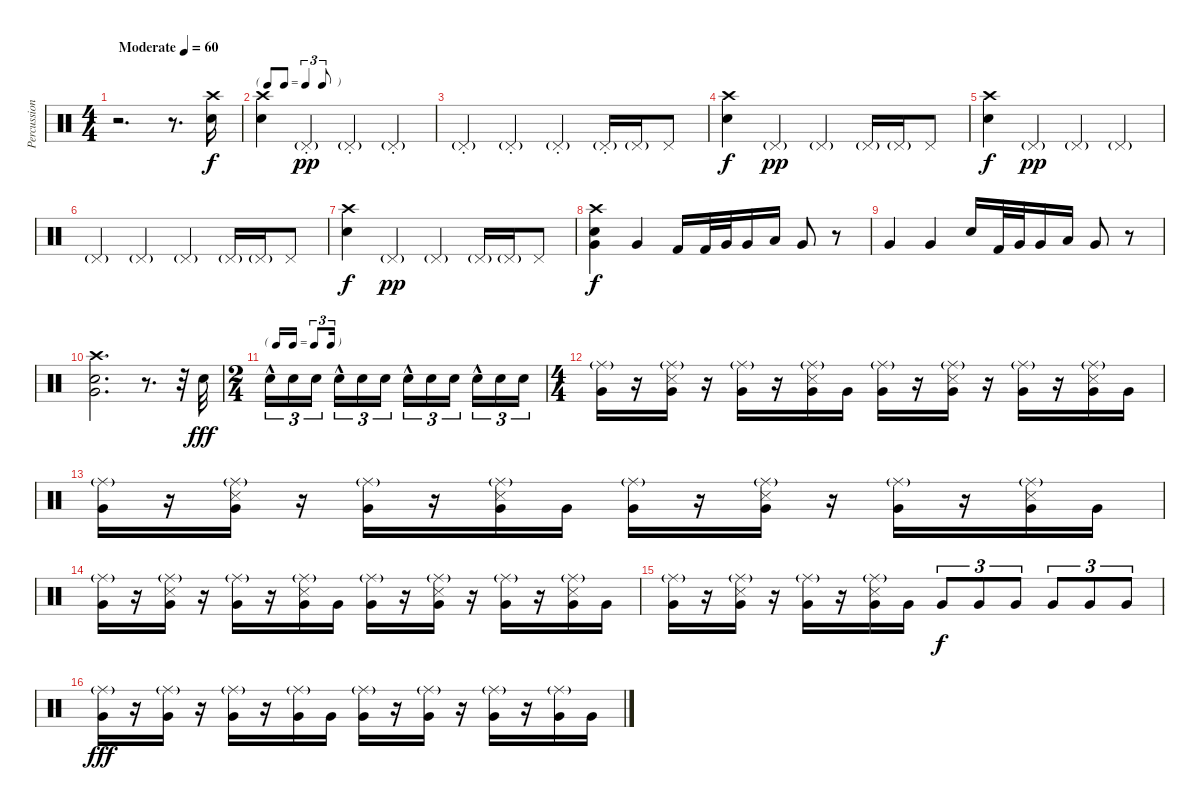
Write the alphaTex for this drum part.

\track ("Percussion" "Percussion") {instrument percussion}
\staff {score}
\articulation defaults
\ts (4 4)
\tempo (60 "Moderate")
\clef neutral
\ks c
r.2{d dy f} r.8{d} ("Crash high (hit)" "Snare (hit) 2").16 |
\tf triplet8th
("Crash high (hit)" "Snare (hit) 2").4 "Pedal Hi-Hat (hit)"{g st}.4{dy pp} "Pedal Hi-Hat (hit)"{g st}.4 "Pedal Hi-Hat (hit)"{g st}.4 |
"Pedal Hi-Hat (hit)"{g st}.4 "Pedal Hi-Hat (hit)"{g st}.4 "Pedal Hi-Hat (hit)"{g st}.4 "Pedal Hi-Hat (hit)"{g st}.16 "Pedal Hi-Hat (hit)"{g}.16 "Pedal Hi-Hat (hit)".8 |
("Crash high (hit)" "Snare (hit) 2").4{dy f} "Pedal Hi-Hat (hit)"{g}.4{dy pp} "Pedal Hi-Hat (hit)"{g}.4 "Pedal Hi-Hat (hit)"{g}.16 "Pedal Hi-Hat (hit)"{g}.16 "Pedal Hi-Hat (hit)".8 |
("Crash high (hit)" "Snare (hit) 2").4{dy f} "Pedal Hi-Hat (hit)"{g}.4{dy pp} "Pedal Hi-Hat (hit)"{g}.4 "Pedal Hi-Hat (hit)"{g}.4 |
"Pedal Hi-Hat (hit)"{g}.4 "Pedal Hi-Hat (hit)"{g}.4 "Pedal Hi-Hat (hit)"{g}.4 "Pedal Hi-Hat (hit)"{g}.16 "Pedal Hi-Hat (hit)"{g}.16 "Pedal Hi-Hat (hit)".8 |
("Crash high (hit)" "Snare (hit) 2").4{dy f} "Pedal Hi-Hat (hit)"{g}.4{dy pp} "Pedal Hi-Hat (hit)"{g}.4 "Pedal Hi-Hat (hit)"{g}.16 "Pedal Hi-Hat (hit)"{g}.16 "Pedal Hi-Hat (hit)".8 |
("Crash high (hit)" "Snare (hit) 2" "Very Low Tom (hit)").4{dy f} "Very Low Tom (hit)".4 "Kick (hit) 2".16 "Kick (hit) 2".32 "Very Low Tom (hit)".32 "Very Low Tom (hit)".16 "Low Tom (hit)".16 "Very Low Tom (hit)".8 r.8 |
"Very Low Tom (hit)".4 "Very Low Tom (hit)".4 "Snare (hit) 2".16 "Kick (hit) 2".32 "Very Low Tom (hit)".32 "Very Low Tom (hit)".16 "Low Tom (hit)".16 "Very Low Tom (hit)".8 r.8 |
("Crash high (hit)" "Snare (hit) 2" "Very Low Tom (hit)").2{d} r.8{d} r.32 "Hand Clap (hit)".32{dy fff} |
\ts (2 4)
\tf triplet16th "Hand Clap (hit)"{hac}.16{tu (3 2)} "Hand Clap (hit)".16{tu (3 2)} "Hand Clap (hit)".16{tu (3 2) beam splitsecondary} "Hand Clap (hit)"{hac}.16{tu (3 2)} "Hand Clap (hit)".16{tu (3 2)} "Hand Clap (hit)".16{tu (3 2)} "Hand Clap (hit)"{hac}.16{tu (3 2)} "Hand Clap (hit)".16{tu (3 2)} "Hand Clap (hit)".16{tu (3 2) beam splitsecondary} "Hand Clap (hit)"{hac}.16{tu (3 2)} "Hand Clap (hit)".16{tu (3 2)} "Hand Clap (hit)".16{tu (3 2)}
|
\ts (4 4)
("Ride (middle)"{g} "Very Low Tom (hit)").16 r.16 ("Ride (middle)"{g} "Metronome (hit)" "Very Low Tom (hit)").16 r.16 ("Ride (middle)"{g} "Very Low Tom (hit)").16 r.16 ("Ride (middle)"{g} "Metronome (hit)" "Very Low Tom (hit)").16 "Very Low Tom (hit)".16 ("Ride (middle)"{g} "Very Low Tom (hit)").16 r.16 ("Ride (middle)"{g} "Metronome (hit)" "Very Low Tom (hit)").16 r.16 ("Ride (middle)"{g} "Very Low Tom (hit)").16 r.16 ("Ride (middle)"{g} "Metronome (hit)" "Very Low Tom (hit)").16 "Very Low Tom (hit)".16 |
("Ride (middle)"{g} "Very Low Tom (hit)").16 r.16 ("Ride (middle)"{g} "Metronome (hit)" "Very Low Tom (hit)").16 r.16 ("Ride (middle)"{g} "Very Low Tom (hit)").16 r.16 ("Ride (middle)"{g} "Metronome (hit)" "Very Low Tom (hit)").16 "Very Low Tom (hit)".16 ("Ride (middle)"{g} "Very Low Tom (hit)").16 r.16 ("Ride (middle)"{g} "Metronome (hit)" "Very Low Tom (hit)").16 r.16 ("Ride (middle)"{g} "Very Low Tom (hit)").16 r.16 ("Ride (middle)"{g} "Metronome (hit)" "Very Low Tom (hit)").16 "Very Low Tom (hit)".16 |
("Ride (middle)"{g} "Very Low Tom (hit)").16 r.16 ("Ride (middle)"{g} "Metronome (hit)" "Very Low Tom (hit)").16 r.16 ("Ride (middle)"{g} "Very Low Tom (hit)").16 r.16 ("Ride (middle)"{g} "Metronome (hit)" "Very Low Tom (hit)").16 "Very Low Tom (hit)".16 ("Ride (middle)"{g} "Very Low Tom (hit)").16 r.16 ("Ride (middle)"{g} "Metronome (hit)" "Very Low Tom (hit)").16 r.16 ("Ride (middle)"{g} "Very Low Tom (hit)").16 r.16 ("Ride (middle)"{g} "Metronome (hit)" "Very Low Tom (hit)").16 "Very Low Tom (hit)".16 |
("Ride (middle)"{g} "Very Low Tom (hit)").16 r.16 ("Ride (middle)"{g} "Metronome (hit)" "Very Low Tom (hit)").16 r.16 ("Ride (middle)"{g} "Very Low Tom (hit)").16 r.16 ("Ride (middle)"{g} "Metronome (hit)" "Very Low Tom (hit)").16 "Very Low Tom (hit)".16 "Very Low Tom (hit)".8{tu (3 2) dy f} "Very Low Tom (hit)".8{tu (3 2)} "Very Low Tom (hit)".8{tu (3 2)} "Very Low Tom (hit)".8{tu (3 2)} "Very Low Tom (hit)".8{tu (3 2)} "Very Low Tom (hit)".8{tu (3 2)} |
("Ride (middle)"{g} "Very Low Tom (hit)").16{dy fff} r.16 ("Ride (middle)"{g} "Very Low Tom (hit)").16 r.16 ("Ride (middle)"{g} "Very Low Tom (hit)").16 r.16 ("Ride (middle)"{g} "Very Low Tom (hit)").16 "Very Low Tom (hit)".16 ("Ride (middle)"{g} "Very Low Tom (hit)").16 r.16 ("Ride (middle)"{g} "Very Low Tom (hit)").16 r.16 ("Ride (middle)"{g} "Very Low Tom (hit)").16 r.16 ("Ride (middle)"{g} "Very Low Tom (hit)").16 "Very Low Tom (hit)".16
